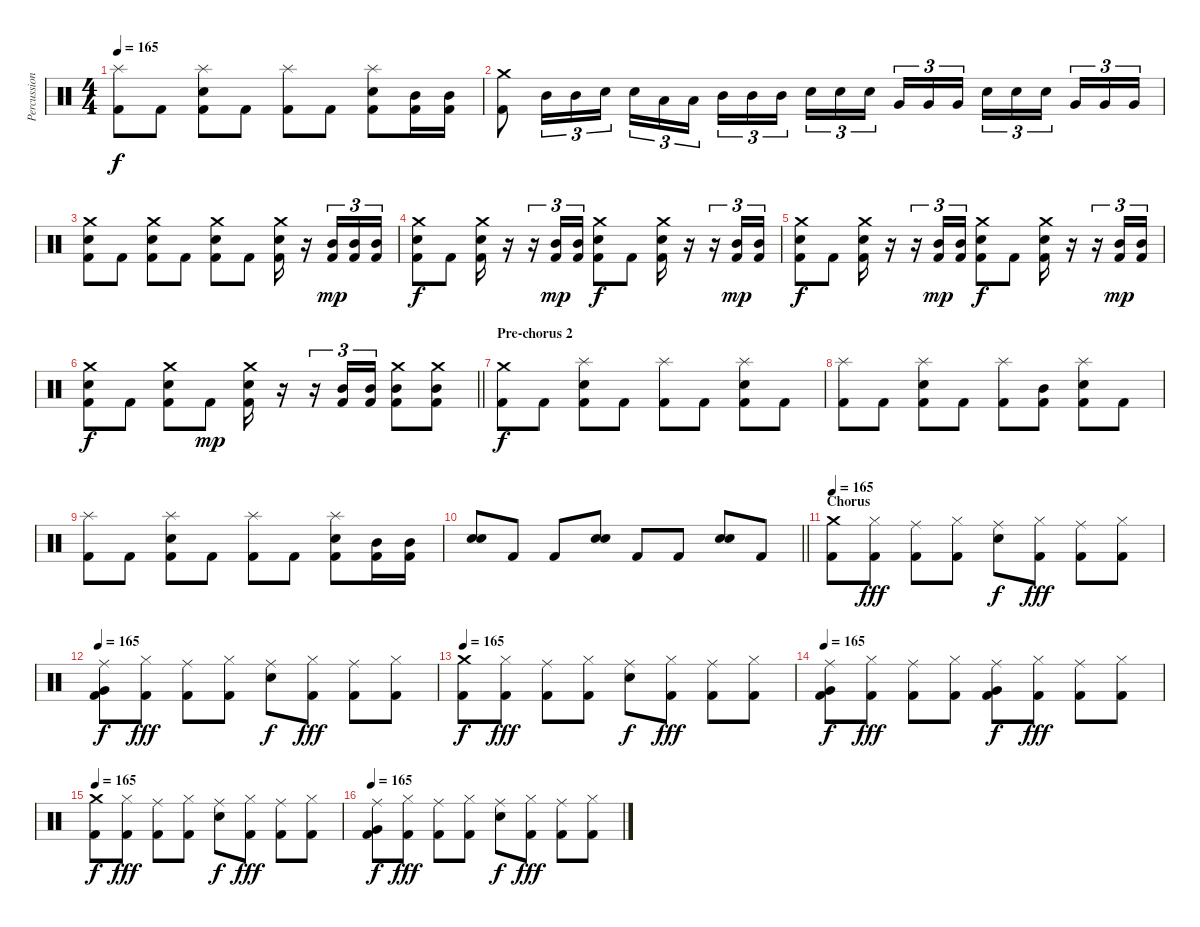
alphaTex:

\track ("Percussion" "Percussion") {instrument percussion}
\staff {score}
\articulation defaults
\ts (4 4)
\tempo 165
\clef neutral
\ks c
("Splash (hit)" "Kick (hit) 2").8{dy f} "Kick (hit) 2".8 ("Splash (hit)" "Electric Snare (hit)" "Kick (hit) 2").8 "Kick (hit) 2".8 ("Splash (hit)" "Kick (hit) 2").8 "Kick (hit) 2".8 ("Splash (hit)" "Electric Snare (hit)" "Kick (hit) 2").8 ("Mid Tom (hit)" "Kick (hit) 2").16 ("Mid Tom (hit)" "Kick (hit) 2").16 |
("Crash medium (hit)" "Kick (hit) 2").8 "Mid Tom (hit)".16{tu (3 2)} "Mid Tom (hit)".16{tu (3 2)} "Electric Snare (hit)".16{tu (3 2)} "Electric Snare (hit)".16{tu (3 2)} "Low Tom (hit)".16{tu (3 2)} "Low Tom (hit)".16{tu (3 2) beam splitsecondary} "Mid Tom (hit)".16{tu (3 2)} "Mid Tom (hit)".16{tu (3 2)} "Mid Tom (hit)".16{tu (3 2)} "Electric Snare (hit)".16{tu (3 2)} "Electric Snare (hit)".16{tu (3 2)} "Electric Snare (hit)".16{tu (3 2) beam splitsecondary} "Very Low Tom (hit)".16{tu (3 2)} "Very Low Tom (hit)".16{tu (3 2)} "Very Low Tom (hit)".16{tu (3 2)} "Electric Snare (hit)".16{tu (3 2)} "Electric Snare (hit)".16{tu (3 2)} "Electric Snare (hit)".16{tu (3 2) beam splitsecondary} "Very Low Tom (hit)".16{tu (3 2)} "Very Low Tom (hit)".16{tu (3 2)} "Very Low Tom (hit)".16{tu (3 2)} |
("Crash medium (hit)" "Electric Snare (hit)" "Kick (hit) 2").8 "Kick (hit) 2".8 ("Crash medium (hit)" "Electric Snare (hit)" "Kick (hit) 2").8 "Kick (hit) 2".8 ("Crash medium (hit)" "Electric Snare (hit)" "Kick (hit) 2").8 "Kick (hit) 2".8 ("Crash medium (hit)" "Electric Snare (hit)" "Kick (hit) 2").16 r.16 ("Mid Tom (hit)" "Kick (hit) 2").16{tu (3 2) dy mp} ("Mid Tom (hit)" "Kick (hit) 2").16{tu (3 2)} ("Mid Tom (hit)" "Kick (hit) 2").16{tu (3 2)} |
("Crash medium (hit)" "Electric Snare (hit)" "Kick (hit) 2").8{dy f} "Kick (hit) 2".8 ("Crash medium (hit)" "Electric Snare (hit)" "Kick (hit) 2").16 r.16 r.16{tu (3 2)} ("Mid Tom (hit)" "Kick (hit) 2").16{tu (3 2) dy mp} ("Mid Tom (hit)" "Kick (hit) 2").16{tu (3 2)} ("Crash medium (hit)" "Electric Snare (hit)" "Kick (hit) 2").8{dy f} "Kick (hit) 2".8 ("Crash medium (hit)" "Electric Snare (hit)" "Kick (hit) 2").16 r.16 r.16{tu (3 2)} ("Mid Tom (hit)" "Kick (hit) 2").16{tu (3 2) dy mp} ("Mid Tom (hit)" "Kick (hit) 2").16{tu (3 2)} |
("Crash medium (hit)" "Electric Snare (hit)" "Kick (hit) 2").8{dy f} "Kick (hit) 2".8 ("Crash medium (hit)" "Electric Snare (hit)" "Kick (hit) 2").16 r.16 r.16{tu (3 2)} ("Mid Tom (hit)" "Kick (hit) 2").16{tu (3 2) dy mp} ("Mid Tom (hit)" "Kick (hit) 2").16{tu (3 2)} ("Crash medium (hit)" "Electric Snare (hit)" "Kick (hit) 2").8{dy f} "Kick (hit) 2".8 ("Crash medium (hit)" "Electric Snare (hit)" "Kick (hit) 2").16 r.16 r.16{tu (3 2)} ("Mid Tom (hit)" "Kick (hit) 2").16{tu (3 2) dy mp} ("Mid Tom (hit)" "Kick (hit) 2").16{tu (3 2)} |
\barLineRight lightlight
("Crash medium (hit)" "Electric Snare (hit)" "Kick (hit) 2").8{dy f} "Kick (hit) 2".8 ("Crash medium (hit)" "Electric Snare (hit)" "Kick (hit) 2").8 "Kick (hit) 2".8{dy mp} ("Crash medium (hit)" "Electric Snare (hit)" "Kick (hit) 2").16 r.16 r.16{tu (3 2)} ("Mid Tom (hit)" "Kick (hit) 2").16{tu (3 2)} ("Mid Tom (hit)" "Kick (hit) 2").16{tu (3 2)} ("Crash medium (hit)" "Mid Tom (hit)" "Kick (hit) 2").8 ("Crash medium (hit)" "Mid Tom (hit)" "Kick (hit) 2").8 |
\section ("" "Pre-chorus 2")
("Crash medium (hit)" "Kick (hit) 2").8{dy f} "Kick (hit) 2".8 ("Splash (hit)" "Electric Snare (hit)" "Kick (hit) 2").8 "Kick (hit) 2".8 ("Splash (hit)" "Kick (hit) 2").8 "Kick (hit) 2".8 ("Splash (hit)" "Electric Snare (hit)" "Kick (hit) 2").8 "Kick (hit) 2".8 |
("Splash (hit)" "Kick (hit) 2").8 "Kick (hit) 2".8 ("Splash (hit)" "Electric Snare (hit)" "Kick (hit) 2").8 "Kick (hit) 2".8 ("Splash (hit)" "Kick (hit) 2").8 ("Mid Tom (hit)" "Kick (hit) 2").8 ("Splash (hit)" "Electric Snare (hit)" "Kick (hit) 2").8 "Kick (hit) 2".8 |
("Splash (hit)" "Kick (hit) 2").8 "Kick (hit) 2".8 ("Splash (hit)" "Electric Snare (hit)" "Kick (hit) 2").8 "Kick (hit) 2".8 ("Splash (hit)" "Kick (hit) 2").8 "Kick (hit) 2".8 ("Splash (hit)" "Electric Snare (hit)" "Kick (hit) 2").8 ("Mid Tom (hit)" "Kick (hit) 2").16 ("Mid Tom (hit)" "Kick (hit) 2").16 |
\barLineRight lightlight
("Electric Snare (hit)" "Electric Snare (hit)").8{bd 120} "Kick (hit) 2".8 "Kick (hit) 2".8 ("Electric Snare (hit)" "Electric Snare (hit)").8{bd 120} "Kick (hit) 2".8 "Kick (hit) 2".8 ("Electric Snare (hit)" "Electric Snare (hit)").8{bd 120} "Kick (hit) 2".8 |
\section ("" "Chorus")
\tempo 165
("Crash medium (hit)" "Kick (hit) 2").8 ("Hi-Hat (closed)" "Kick (hit) 2").8{dy fff} ("Ride (middle)" "Kick (hit) 2").8 ("Hi-Hat (closed)" "Kick (hit) 2").8 ("Ride (middle)" "Electric Snare (hit)").8{dy f} ("Hi-Hat (closed)" "Kick (hit) 2").8{dy fff} ("Ride (middle)" "Kick (hit) 2").8 ("Hi-Hat (closed)" "Kick (hit) 2").8 |
\tempo 165
("Ride (middle)" "Very Low Tom (hit)" "Kick (hit) 2").8{dy f} ("Hi-Hat (closed)" "Kick (hit) 2").8{dy fff} ("Ride (middle)" "Kick (hit) 2").8 ("Hi-Hat (closed)" "Kick (hit) 2").8 ("Ride (middle)" "Electric Snare (hit)").8{dy f} ("Hi-Hat (closed)" "Kick (hit) 2").8{dy fff} ("Ride (middle)" "Kick (hit) 2").8 ("Hi-Hat (closed)" "Kick (hit) 2").8 |
\tempo 165
("Crash medium (hit)" "Kick (hit) 2").8{dy f} ("Hi-Hat (closed)" "Kick (hit) 2").8{dy fff} ("Ride (middle)" "Kick (hit) 2").8 ("Hi-Hat (closed)" "Kick (hit) 2").8 ("Ride (middle)" "Electric Snare (hit)").8{dy f} ("Hi-Hat (closed)" "Kick (hit) 2").8{dy fff} ("Ride (middle)" "Kick (hit) 2").8 ("Hi-Hat (closed)" "Kick (hit) 2").8 |
\tempo 165
("Ride (middle)" "Very Low Tom (hit)" "Kick (hit) 2").8{dy f} ("Hi-Hat (closed)" "Kick (hit) 2").8{dy fff} ("Ride (middle)" "Kick (hit) 2").8 ("Hi-Hat (closed)" "Kick (hit) 2").8 ("Ride (middle)" "Very Low Tom (hit)" "Kick (hit) 2").8{dy f} ("Hi-Hat (closed)" "Kick (hit) 2").8{dy fff} ("Ride (middle)" "Kick (hit) 2").8 ("Hi-Hat (closed)" "Kick (hit) 2").8 |
\tempo 165
("Crash medium (hit)" "Kick (hit) 2").8{dy f} ("Hi-Hat (closed)" "Kick (hit) 2").8{dy fff} ("Ride (middle)" "Kick (hit) 2").8 ("Hi-Hat (closed)" "Kick (hit) 2").8 ("Ride (middle)" "Electric Snare (hit)").8{dy f} ("Hi-Hat (closed)" "Kick (hit) 2").8{dy fff} ("Ride (middle)" "Kick (hit) 2").8 ("Hi-Hat (closed)" "Kick (hit) 2").8 |
\tempo 165
("Ride (middle)" "Very Low Tom (hit)" "Kick (hit) 2").8{dy f} ("Hi-Hat (closed)" "Kick (hit) 2").8{dy fff} ("Ride (middle)" "Kick (hit) 2").8 ("Hi-Hat (closed)" "Kick (hit) 2").8 ("Ride (middle)" "Electric Snare (hit)").8{dy f} ("Hi-Hat (closed)" "Kick (hit) 2").8{dy fff} ("Ride (middle)" "Kick (hit) 2").8 ("Hi-Hat (closed)" "Kick (hit) 2").8
